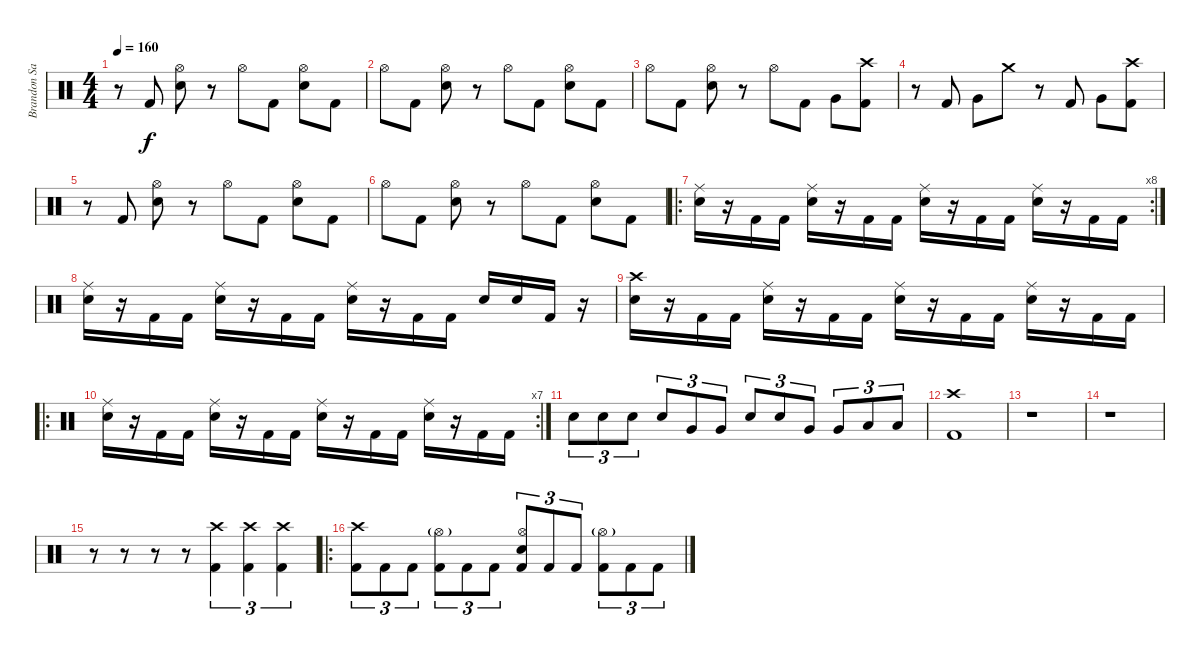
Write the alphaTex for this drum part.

\track ("Brandon Saller" "Brandon Sa") {instrument percussion}
\staff {score}
\articulation defaults
\ts (4 4)
\tempo 160
\clef neutral
\ks c
r.8{dy f} "Kick (hit) 2".8 ("Hi-Hat (open)" "Snare (hit) 2").8 r.8 "Hi-Hat (open)".8 "Kick (hit) 2".8 ("Hi-Hat (open)" "Snare (hit) 2").8 "Kick (hit) 2".8 |
"Hi-Hat (open)".8 "Kick (hit) 2".8 ("Hi-Hat (open)" "Snare (hit) 2").8 r.8 "Hi-Hat (open)".8 "Kick (hit) 2".8 ("Hi-Hat (open)" "Snare (hit) 2").8 "Kick (hit) 2".8 |
"Hi-Hat (open)".8 "Kick (hit) 2".8 ("Hi-Hat (open)" "Snare (hit) 2").8 r.8 "Hi-Hat (open)".8 "Kick (hit) 2".8 "Very Low Tom (hit)".8 ("Crash high (hit)" "Kick (hit) 2").8 |
r.8 "Kick (hit) 2".8 "Very Low Tom (hit)".8 "Crash medium (hit)".8 r.8 "Kick (hit) 2".8 "Very Low Tom (hit)".8 ("Crash high (hit)" "Kick (hit) 2").8 |
r.8 "Kick (hit) 2".8 ("Hi-Hat (open)" "Snare (hit) 2").8 r.8 "Hi-Hat (open)".8 "Kick (hit) 2".8 ("Hi-Hat (open)" "Snare (hit) 2").8 "Kick (hit) 2".8 |
"Hi-Hat (open)".8 "Kick (hit) 2".8 ("Hi-Hat (open)" "Snare (hit) 2").8 r.8 "Hi-Hat (open)".8 "Kick (hit) 2".8 ("Hi-Hat (open)" "Snare (hit) 2").8 "Kick (hit) 2".8 |
\ro
\rc 8
("Ride (middle)" "Snare (hit) 2").16 r.16 "Kick (hit) 2".16 "Kick (hit) 2".16 ("Ride (middle)" "Snare (hit) 2").16 r.16 "Kick (hit) 2".16 "Kick (hit) 2".16 ("Ride (middle)" "Snare (hit) 2").16 r.16 "Kick (hit) 2".16 "Kick (hit) 2".16 ("Ride (middle)" "Snare (hit) 2").16 r.16 "Kick (hit) 2".16 "Kick (hit) 2".16 |
("Ride (middle)" "Snare (hit) 2").16 r.16 "Kick (hit) 2".16 "Kick (hit) 2".16 ("Ride (middle)" "Snare (hit) 2").16 r.16 "Kick (hit) 2".16 "Kick (hit) 2".16 ("Ride (middle)" "Snare (hit) 2").16 r.16 "Kick (hit) 2".16 "Kick (hit) 2".16 "Snare (hit) 2".16 "Snare (hit) 2".16 "Kick (hit) 2".16 r.16 |
("Crash high (hit)" "Snare (hit) 2").16 r.16 "Kick (hit) 2".16 "Kick (hit) 2".16 ("Ride (middle)" "Snare (hit) 2").16 r.16 "Kick (hit) 2".16 "Kick (hit) 2".16 ("Ride (middle)" "Snare (hit) 2").16 r.16 "Kick (hit) 2".16 "Kick (hit) 2".16 ("Ride (middle)" "Snare (hit) 2").16 r.16 "Kick (hit) 2".16 "Kick (hit) 2".16 |
\ro
\rc 7
("Ride (middle)" "Snare (hit) 2").16 r.16 "Kick (hit) 2".16 "Kick (hit) 2".16 ("Ride (middle)" "Snare (hit) 2").16 r.16 "Kick (hit) 2".16 "Kick (hit) 2".16 ("Ride (middle)" "Snare (hit) 2").16 r.16 "Kick (hit) 2".16 "Kick (hit) 2".16 ("Ride (middle)" "Snare (hit) 2").16 r.16 "Kick (hit) 2".16 "Kick (hit) 2".16 |
"Snare (hit) 2".8{tu (3 2)} "Snare (hit) 2".8{tu (3 2)} "Snare (hit) 2".8{tu (3 2)} "Snare (hit) 2".8{tu (3 2)} "Very Low Tom (hit)".8{tu (3 2)} "Very Low Tom (hit)".8{tu (3 2)} "Snare (hit) 2".8{tu (3 2)} "Snare (hit) 2".8{tu (3 2)} "Very Low Tom (hit)".8{tu (3 2)} "Very Low Tom (hit)".8{tu (3 2)} "Low Floor Tom (hit)".8{tu (3 2)} "Low Floor Tom (hit)".8{tu (3 2)} |
("Crash high (hit)" "Kick (hit) 2").1 |
r.1 |
r.1 |
r.8 r.8 r.8 r.8 ("Crash high (hit)" "Kick (hit) 2").4{tu (3 2)} ("Crash high (hit)" "Kick (hit) 2").4{tu (3 2)} ("Crash high (hit)" "Kick (hit) 2").4{tu (3 2)} |
\ro
("Crash high (hit)" "Kick (hit) 2").8{tu (3 2)} "Kick (hit) 2".8{tu (3 2)} "Kick (hit) 2".8{tu (3 2)} ("Hi-Hat (open)"{g} "Kick (hit) 2").8{tu (3 2)} "Kick (hit) 2".8{tu (3 2)} "Kick (hit) 2".8{tu (3 2)} ("Hi-Hat (open)" "Snare (hit) 2" "Kick (hit) 2").8{tu (3 2)} "Kick (hit) 2".8{tu (3 2)} "Kick (hit) 2".8{tu (3 2)} ("Hi-Hat (open)"{g} "Kick (hit) 2").8{tu (3 2)} "Kick (hit) 2".8{tu (3 2)} "Kick (hit) 2".8{tu (3 2)}
